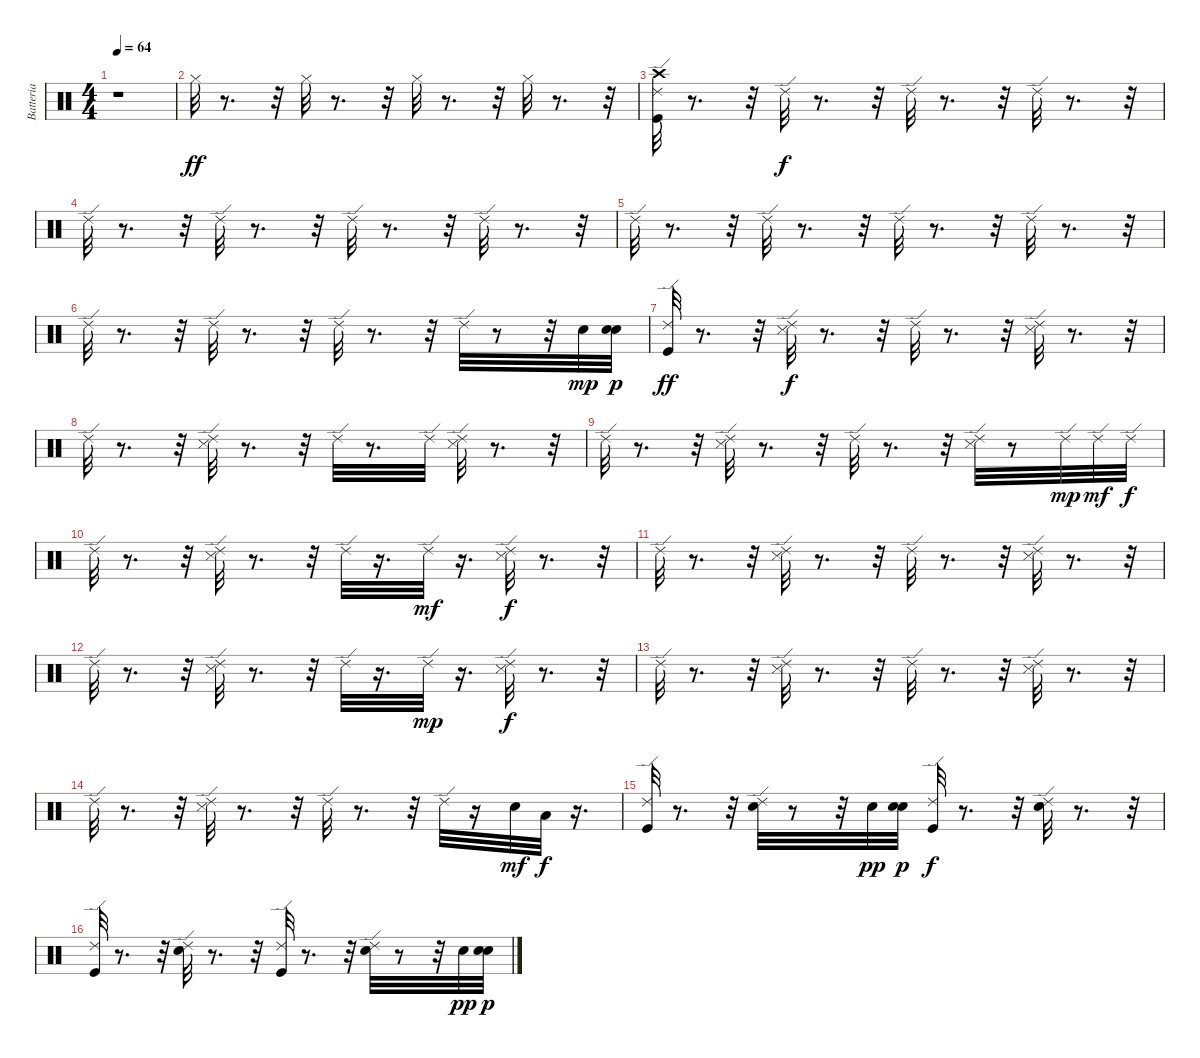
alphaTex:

\track ("Batteria" "Batteria") {instrument percussion}
\staff {score}
\articulation defaults
\ts (4 4)
\tempo 64
\clef neutral
\ks c
r.1{dy ff} |
"Hi-Hat (closed)".32{balance 8} r.8{d} r.32 "Hi-Hat (closed)".32 r.8{d} r.32 "Hi-Hat (closed)".32 r.8{d} r.32 "Hi-Hat (closed)".32 r.8{d} r.32 |
("Crash high (hit)" "Kick (hit)" "Ride (edge) 2").32 r.8{d} r.32 "Ride (edge) 2".32{dy f} r.8{d} r.32 "Ride (edge) 2".32 r.8{d} r.32 "Ride (edge) 2".32 r.8{d} r.32 |
"Ride (edge) 2".32 r.8{d} r.32 "Ride (edge) 2".32 r.8{d} r.32 "Ride (edge) 2".32 r.8{d} r.32 "Ride (edge) 2".32 r.8{d} r.32 |
"Ride (edge) 2".32 r.8{d} r.32 "Ride (edge) 2".32 r.8{d} r.32 "Ride (edge) 2".32 r.8{d} r.32 "Ride (edge) 2".32 r.8{d} r.32 |
"Ride (edge) 2".32 r.8{d} r.32 "Ride (edge) 2".32 r.8{d} r.32 "Ride (edge) 2".32 r.8{d} r.32 "Ride (edge) 2".32 r.8 r.32 "Snare (hit) 2".32{dy mp} ("Snare (hit) 2" "Snare (hit) 2").32{dy p} |
("Kick (hit)" "Ride (edge) 2").32{dy ff} r.8{d} r.32 ("Snare (side stick) 3" "Ride (edge) 2").32{dy f} r.8{d} r.32 "Ride (edge) 2".32 r.8{d} r.32 ("Snare (side stick) 3" "Ride (edge) 2").32 r.8{d} r.32 |
"Ride (edge) 2".32 r.8{d} r.32 ("Snare (side stick) 3" "Ride (edge) 2").32 r.8{d} r.32 "Ride (edge) 2".32 r.8{d} "Ride (edge) 2".32 ("Snare (side stick) 3" "Ride (edge) 2").32 r.8{d} r.32 |
"Ride (edge) 2".32 r.8{d} r.32 ("Snare (side stick) 3" "Ride (edge) 2").32 r.8{d} r.32 "Ride (edge) 2".32 r.8{d} r.32 ("Snare (side stick) 3" "Ride (edge) 2").32 r.8 "Ride (edge) 2".32{dy mp} "Ride (edge) 2".32{dy mf} "Ride (edge) 2".32{dy f} |
"Ride (edge) 2".32 r.8{d} r.32 ("Snare (side stick) 3" "Ride (edge) 2").32 r.8{d} r.32 "Ride (edge) 2".32 r.16{d} "Ride (edge) 2".32{dy mf} r.16{d} ("Snare (side stick) 3" "Ride (edge) 2").32{dy f} r.8{d} r.32 |
"Ride (edge) 2".32 r.8{d} r.32 ("Snare (side stick) 3" "Ride (edge) 2").32 r.8{d} r.32 "Ride (edge) 2".32 r.8{d} r.32 ("Snare (side stick) 3" "Ride (edge) 2").32 r.8{d} r.32 |
"Ride (edge) 2".32 r.8{d} r.32 ("Snare (side stick) 3" "Ride (edge) 2").32 r.8{d} r.32 "Ride (edge) 2".32 r.16{d} "Ride (edge) 2".32{dy mp} r.16{d} ("Snare (side stick) 3" "Ride (edge) 2").32{dy f} r.8{d} r.32 |
"Ride (edge) 2".32 r.8{d} r.32 ("Ride (edge) 2" "Snare (side stick) 3").32 r.8{d} r.32 "Ride (edge) 2".32 r.8{d} r.32 ("Snare (side stick) 3" "Ride (edge) 2").32 r.8{d} r.32 |
"Ride (edge) 2".32 r.8{d} r.32 ("Snare (side stick) 3" "Ride (edge) 2").32 r.8{d} r.32 "Ride (edge) 2".32 r.8{d} r.32 "Ride (edge) 2".32 r.16 "Snare (hit) 2".32{dy mf} "Low Tom (hit)".32{dy f} r.16{d} |
("Kick (hit)" "Ride (edge) 2").32 r.8{d} r.32 ("Snare (hit) 2" "Ride (edge) 2").32 r.8 r.32 "Snare (hit) 2".32{dy pp} ("Snare (hit) 2" "Snare (hit) 2").32{dy p} ("Kick (hit)" "Ride (edge) 2").32{dy f} r.8{d} r.32 ("Snare (hit) 2" "Ride (edge) 2").32 r.8{d} r.32 |
("Kick (hit)" "Ride (edge) 2").32 r.8{d} r.32 ("Snare (hit) 2" "Ride (edge) 2").32 r.8{d} r.32 ("Kick (hit)" "Ride (edge) 2").32 r.8{d} r.32 ("Snare (hit) 2" "Ride (edge) 2").32 r.8 r.32 "Snare (hit) 2".32{dy pp} ("Snare (hit) 2" "Snare (hit) 2").32{dy p}
